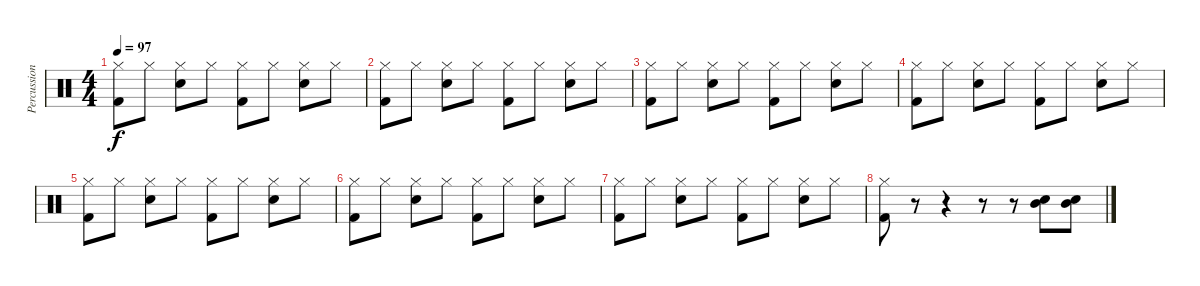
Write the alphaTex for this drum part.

\track ("Percussion" "Percussion") {instrument percussion}
\staff {score}
\articulation defaults
\ts (4 4)
\tempo 97
\clef neutral
\ks c
("Hi-Hat (closed)" "Kick (hit) 2").8{dy f} "Hi-Hat (closed)".8 ("Hi-Hat (closed)" "Snare (hit) 2").8 "Hi-Hat (closed)".8 ("Hi-Hat (closed)" "Kick (hit) 2").8 "Hi-Hat (closed)".8 ("Hi-Hat (closed)" "Snare (hit) 2").8 "Hi-Hat (closed)".8 |
("Hi-Hat (closed)" "Kick (hit) 2").8 "Hi-Hat (closed)".8 ("Hi-Hat (closed)" "Snare (hit) 2").8 "Hi-Hat (closed)".8 ("Hi-Hat (closed)" "Kick (hit) 2").8 "Hi-Hat (closed)".8 ("Hi-Hat (closed)" "Snare (hit) 2").8 "Hi-Hat (closed)".8 |
("Hi-Hat (closed)" "Kick (hit) 2").8 "Hi-Hat (closed)".8 ("Hi-Hat (closed)" "Snare (hit) 2").8 "Hi-Hat (closed)".8 ("Hi-Hat (closed)" "Kick (hit) 2").8 "Hi-Hat (closed)".8 ("Hi-Hat (closed)" "Snare (hit) 2").8 "Hi-Hat (closed)".8 |
("Hi-Hat (closed)" "Kick (hit) 2").8 "Hi-Hat (closed)".8 ("Hi-Hat (closed)" "Snare (hit) 2").8 "Hi-Hat (closed)".8 ("Hi-Hat (closed)" "Kick (hit) 2").8 "Hi-Hat (closed)".8 ("Hi-Hat (closed)" "Snare (hit) 2").8 "Hi-Hat (closed)".8 |
("Hi-Hat (closed)" "Kick (hit) 2").8 "Hi-Hat (closed)".8 ("Hi-Hat (closed)" "Snare (hit) 2").8 "Hi-Hat (closed)".8 ("Hi-Hat (closed)" "Kick (hit) 2").8 "Hi-Hat (closed)".8 ("Hi-Hat (closed)" "Snare (hit) 2").8 "Hi-Hat (closed)".8 |
("Hi-Hat (closed)" "Kick (hit) 2").8 "Hi-Hat (closed)".8 ("Hi-Hat (closed)" "Snare (hit) 2").8 "Hi-Hat (closed)".8 ("Hi-Hat (closed)" "Kick (hit) 2").8 "Hi-Hat (closed)".8 ("Hi-Hat (closed)" "Snare (hit) 2").8 "Hi-Hat (closed)".8 |
("Hi-Hat (closed)" "Kick (hit) 2").8 "Hi-Hat (closed)".8 ("Hi-Hat (closed)" "Snare (hit) 2").8 "Hi-Hat (closed)".8 ("Hi-Hat (closed)" "Kick (hit) 2").8 "Hi-Hat (closed)".8 ("Hi-Hat (closed)" "Snare (hit) 2").8 "Hi-Hat (closed)".8 |
("Hi-Hat (closed)" "Kick (hit) 2").8 r.8 r.4 r.8 r.8 ("Snare (hit) 2" "Mid Tom (hit)").8 ("Snare (hit) 2" "Mid Tom (hit)").8
